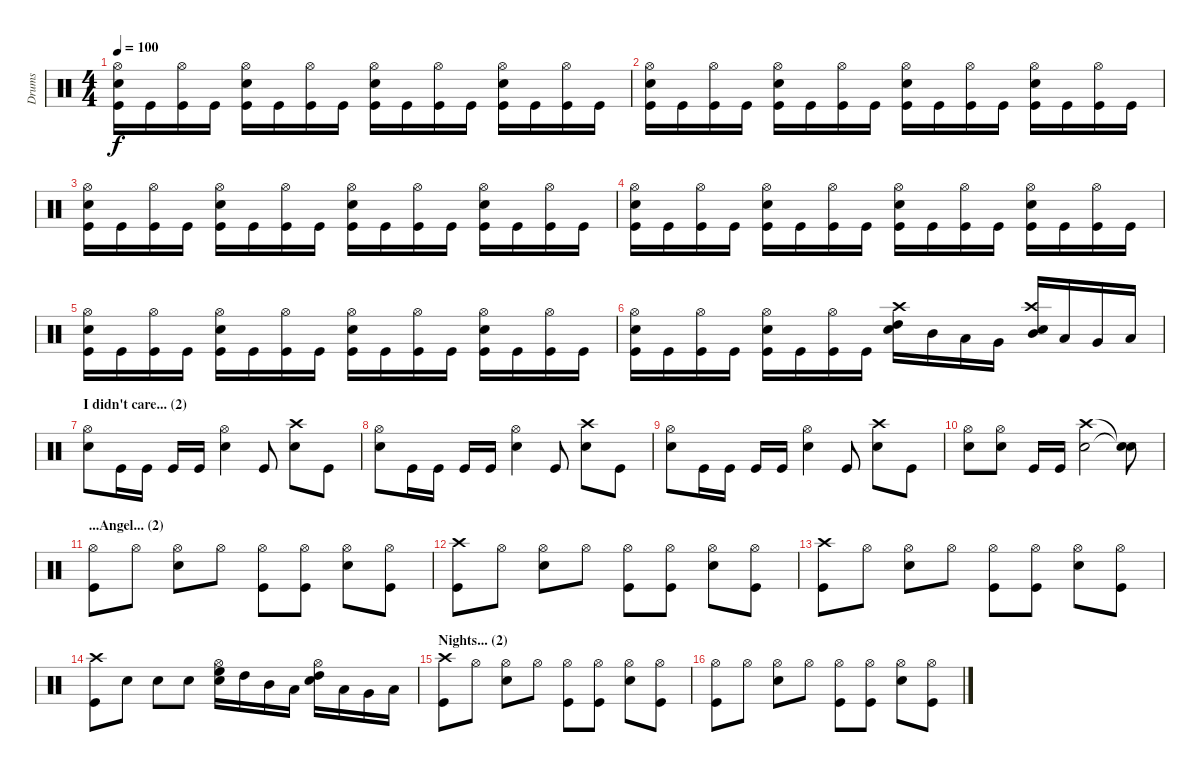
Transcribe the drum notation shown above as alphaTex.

\track ("Drums" "Drums") {instrument percussion}
\staff {score}
\articulation defaults
\ts (4 4)
\tempo 100
\clef neutral
\ks c
("Hi-Hat (open)" "Snare (hit) 2" "Kick (hit)").16{dy f} "Kick (hit)".16 ("Hi-Hat (open)" "Kick (hit)").16 "Kick (hit)".16 ("Hi-Hat (open)" "Snare (hit) 2" "Kick (hit)").16 "Kick (hit)".16 ("Hi-Hat (open)" "Kick (hit)").16 "Kick (hit)".16 ("Hi-Hat (open)" "Snare (hit) 2" "Kick (hit)").16 "Kick (hit)".16 ("Hi-Hat (open)" "Kick (hit)").16 "Kick (hit)".16 ("Hi-Hat (open)" "Snare (hit) 2" "Kick (hit)").16 "Kick (hit)".16 ("Hi-Hat (open)" "Kick (hit)").16 "Kick (hit)".16 |
("Hi-Hat (open)" "Snare (hit) 2" "Kick (hit)").16 "Kick (hit)".16 ("Hi-Hat (open)" "Kick (hit)").16 "Kick (hit)".16 ("Hi-Hat (open)" "Snare (hit) 2" "Kick (hit)").16 "Kick (hit)".16 ("Hi-Hat (open)" "Kick (hit)").16 "Kick (hit)".16 ("Hi-Hat (open)" "Snare (hit) 2" "Kick (hit)").16 "Kick (hit)".16 ("Hi-Hat (open)" "Kick (hit)").16 "Kick (hit)".16 ("Hi-Hat (open)" "Snare (hit) 2" "Kick (hit)").16 "Kick (hit)".16 ("Hi-Hat (open)" "Kick (hit)").16 "Kick (hit)".16 |
("Hi-Hat (open)" "Snare (hit) 2" "Kick (hit)").16 "Kick (hit)".16 ("Hi-Hat (open)" "Kick (hit)").16 "Kick (hit)".16 ("Hi-Hat (open)" "Snare (hit) 2" "Kick (hit)").16 "Kick (hit)".16 ("Hi-Hat (open)" "Kick (hit)").16 "Kick (hit)".16 ("Hi-Hat (open)" "Snare (hit) 2" "Kick (hit)").16 "Kick (hit)".16 ("Hi-Hat (open)" "Kick (hit)").16 "Kick (hit)".16 ("Hi-Hat (open)" "Snare (hit) 2" "Kick (hit)").16 "Kick (hit)".16 ("Hi-Hat (open)" "Kick (hit)").16 "Kick (hit)".16 |
("Hi-Hat (open)" "Snare (hit) 2" "Kick (hit)").16 "Kick (hit)".16 ("Hi-Hat (open)" "Kick (hit)").16 "Kick (hit)".16 ("Hi-Hat (open)" "Snare (hit) 2" "Kick (hit)").16 "Kick (hit)".16 ("Hi-Hat (open)" "Kick (hit)").16 "Kick (hit)".16 ("Hi-Hat (open)" "Snare (hit) 2" "Kick (hit)").16 "Kick (hit)".16 ("Hi-Hat (open)" "Kick (hit)").16 "Kick (hit)".16 ("Hi-Hat (open)" "Snare (hit) 2" "Kick (hit)").16 "Kick (hit)".16 ("Hi-Hat (open)" "Kick (hit)").16 "Kick (hit)".16 |
("Hi-Hat (open)" "Snare (hit) 2" "Kick (hit)").16 "Kick (hit)".16 ("Hi-Hat (open)" "Kick (hit)").16 "Kick (hit)".16 ("Hi-Hat (open)" "Snare (hit) 2" "Kick (hit)").16 "Kick (hit)".16 ("Hi-Hat (open)" "Kick (hit)").16 "Kick (hit)".16 ("Hi-Hat (open)" "Snare (hit) 2" "Kick (hit)").16 "Kick (hit)".16 ("Hi-Hat (open)" "Kick (hit)").16 "Kick (hit)".16 ("Hi-Hat (open)" "Snare (hit) 2" "Kick (hit)").16 "Kick (hit)".16 ("Hi-Hat (open)" "Kick (hit)").16 "Kick (hit)".16 |
("Hi-Hat (open)" "Snare (hit) 2" "Kick (hit)").16 "Kick (hit)".16 ("Hi-Hat (open)" "Kick (hit)").16 "Kick (hit)".16 ("Hi-Hat (open)" "Snare (hit) 2" "Kick (hit)").16 "Kick (hit)".16 ("Hi-Hat (open)" "Kick (hit)").16 "Kick (hit)".16 ("Crash high (hit)" "Snare (hit) 2" "High Tom (hit)").16 "Mid Tom (hit)".16 "Low Tom (hit)".16 "Very Low Tom (hit)".16 ("Crash high (hit)" "Snare (hit) 2" "Mid Tom (hit)").16 "Low Tom (hit)".16 "Very Low Tom (hit)".16 "Low Floor Tom (hit)".16 |
\section ("" "I didn't care... (2)")
("Hi-Hat (open)" "Snare (hit) 2").8 "Kick (hit)".16 "Kick (hit)".16 "Kick (hit)".16 "Kick (hit)".16 ("Hi-Hat (open)" "Snare (hit) 2").4 "Kick (hit)".8 ("Crash high (hit)" "Snare (hit) 2").8 "Kick (hit)".8 |
("Hi-Hat (open)" "Snare (hit) 2").8 "Kick (hit)".16 "Kick (hit)".16 "Kick (hit)".16 "Kick (hit)".16 ("Hi-Hat (open)" "Snare (hit) 2").4 "Kick (hit)".8 ("Crash high (hit)" "Snare (hit) 2").8 "Kick (hit)".8 |
("Hi-Hat (open)" "Snare (hit) 2").8 "Kick (hit)".16 "Kick (hit)".16 "Kick (hit)".16 "Kick (hit)".16 ("Hi-Hat (open)" "Snare (hit) 2").4 "Kick (hit)".8 ("Crash high (hit)" "Snare (hit) 2").8 "Kick (hit)".8 |
("Hi-Hat (open)" "Snare (hit) 2").8 ("Hi-Hat (open)" "Snare (hit) 2").8 "Kick (hit)".16 "Kick (hit)".16 ("Crash high (hit)" "Snare (hit) 2").2 ("Snare (hit)"{t} "Snare (hit)"{t}).8 |
\section ("" "...Angel... (2)")
("Hi-Hat (open)" "Kick (hit)").8 "Hi-Hat (open)".8 ("Hi-Hat (open)" "Snare (hit) 2").8 "Hi-Hat (open)".8 ("Hi-Hat (open)" "Kick (hit)").8 ("Hi-Hat (open)" "Kick (hit)").8 ("Hi-Hat (open)" "Snare (hit) 2").8 ("Hi-Hat (open)" "Kick (hit)").8 |
("Crash high (hit)" "Kick (hit)").8 "Hi-Hat (open)".8 ("Hi-Hat (open)" "Snare (hit) 2").8 "Hi-Hat (open)".8 ("Hi-Hat (open)" "Kick (hit)").8 ("Hi-Hat (open)" "Kick (hit)").8 ("Hi-Hat (open)" "Snare (hit) 2").8 ("Hi-Hat (open)" "Kick (hit)").8 |
("Crash high (hit)" "Kick (hit)").8 "Hi-Hat (open)".8 ("Hi-Hat (open)" "Snare (hit) 2").8 "Hi-Hat (open)".8 ("Hi-Hat (open)" "Kick (hit)").8 ("Hi-Hat (open)" "Kick (hit)").8 ("Hi-Hat (open)" "Snare (hit) 2").8 ("Hi-Hat (open)" "Kick (hit)").8 |
("Crash high (hit)" "Kick (hit)").8 "Snare (hit) 2".8 "Snare (hit) 2".8 "Snare (hit) 2".8 ("Hi-Hat (open)" "Snare (hit) 2" "High Floor Tom (hit)").16 "High Tom (hit)".16 "Mid Tom (hit)".16 "Low Tom (hit)".16 ("Hi-Hat (open)" "Snare (hit) 2" "High Tom (hit)").16 "Low Tom (hit)".16 "Very Low Tom (hit)".16 "Low Floor Tom (hit)".16 |
\section ("" "Nights... (2)")
("Crash high (hit)" "Kick (hit)").8 "Hi-Hat (open)".8 ("Hi-Hat (open)" "Snare (hit) 2").8 "Hi-Hat (open)".8 ("Hi-Hat (open)" "Kick (hit)").8 ("Hi-Hat (open)" "Kick (hit)").8 ("Hi-Hat (open)" "Snare (hit) 2").8 ("Hi-Hat (open)" "Kick (hit)").8 |
("Hi-Hat (open)" "Kick (hit)").8 "Hi-Hat (open)".8 ("Hi-Hat (open)" "Snare (hit) 2").8 "Hi-Hat (open)".8 ("Hi-Hat (open)" "Kick (hit)").8 ("Hi-Hat (open)" "Kick (hit)").8 ("Hi-Hat (open)" "Snare (hit) 2").8 ("Hi-Hat (open)" "Kick (hit)").8
